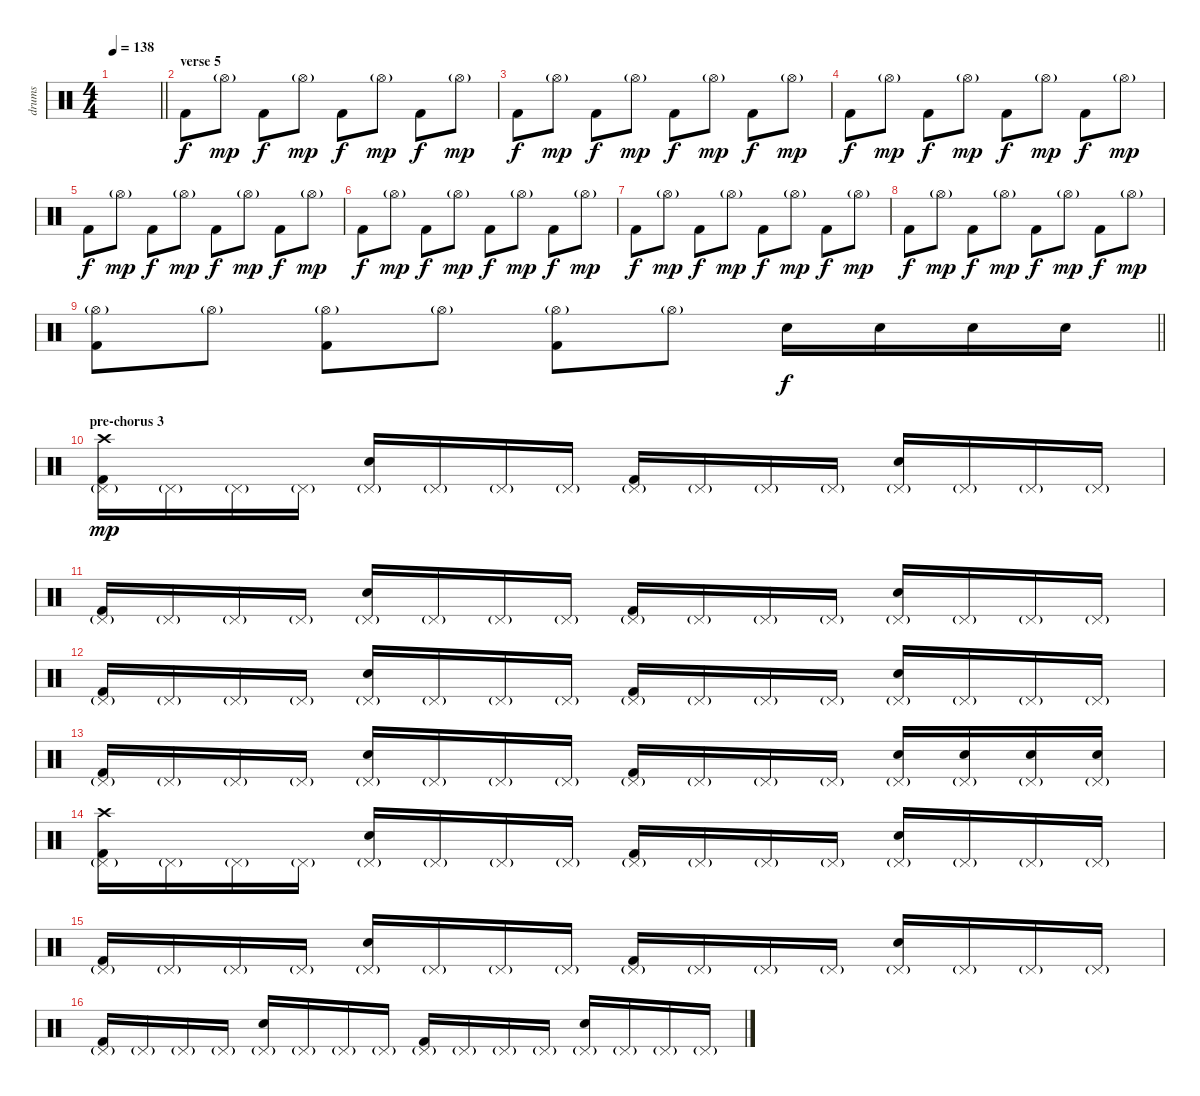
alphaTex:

\track ("drums" "drums") {instrument percussion}
\staff {score}
\articulation defaults
\ts (4 4)
\tempo 138
\clef neutral
\barLineRight lightlight
\ks c
|
\section ("" "verse 5")
"Kick (hit) 2".8{dy f} "Hi-Hat (open)"{g}.8{dy mp} "Kick (hit) 2".8{dy f} "Hi-Hat (open)"{g}.8{dy mp} "Kick (hit) 2".8{dy f} "Hi-Hat (open)"{g}.8{dy mp} "Kick (hit) 2".8{dy f} "Hi-Hat (open)"{g}.8{dy mp} |
"Kick (hit) 2".8{dy f} "Hi-Hat (open)"{g}.8{dy mp} "Kick (hit) 2".8{dy f} "Hi-Hat (open)"{g}.8{dy mp} "Kick (hit) 2".8{dy f} "Hi-Hat (open)"{g}.8{dy mp} "Kick (hit) 2".8{dy f} "Hi-Hat (open)"{g}.8{dy mp} |
"Kick (hit) 2".8{dy f} "Hi-Hat (open)"{g}.8{dy mp} "Kick (hit) 2".8{dy f} "Hi-Hat (open)"{g}.8{dy mp} "Kick (hit) 2".8{dy f} "Hi-Hat (open)"{g}.8{dy mp} "Kick (hit) 2".8{dy f} "Hi-Hat (open)"{g}.8{dy mp} |
"Kick (hit) 2".8{dy f} "Hi-Hat (open)"{g}.8{dy mp} "Kick (hit) 2".8{dy f} "Hi-Hat (open)"{g}.8{dy mp} "Kick (hit) 2".8{dy f} "Hi-Hat (open)"{g}.8{dy mp} "Kick (hit) 2".8{dy f} "Hi-Hat (open)"{g}.8{dy mp} |
"Kick (hit) 2".8{dy f} "Hi-Hat (open)"{g}.8{dy mp} "Kick (hit) 2".8{dy f} "Hi-Hat (open)"{g}.8{dy mp} "Kick (hit) 2".8{dy f} "Hi-Hat (open)"{g}.8{dy mp} "Kick (hit) 2".8{dy f} "Hi-Hat (open)"{g}.8{dy mp} |
"Kick (hit) 2".8{dy f} "Hi-Hat (open)"{g}.8{dy mp} "Kick (hit) 2".8{dy f} "Hi-Hat (open)"{g}.8{dy mp} "Kick (hit) 2".8{dy f} "Hi-Hat (open)"{g}.8{dy mp} "Kick (hit) 2".8{dy f} "Hi-Hat (open)"{g}.8{dy mp} |
"Kick (hit) 2".8{dy f} "Hi-Hat (open)"{g}.8{dy mp} "Kick (hit) 2".8{dy f} "Hi-Hat (open)"{g}.8{dy mp} "Kick (hit) 2".8{dy f} "Hi-Hat (open)"{g}.8{dy mp} "Kick (hit) 2".8{dy f} "Hi-Hat (open)"{g}.8{dy mp} |
\barLineRight lightlight
("Kick (hit) 2" "Hi-Hat (open)"{g}).8 "Hi-Hat (open)"{g}.8 ("Kick (hit) 2" "Hi-Hat (open)"{g}).8 "Hi-Hat (open)"{g}.8 ("Kick (hit) 2" "Hi-Hat (open)"{g}).8 "Hi-Hat (open)"{g}.8 "Electric Snare (hit)".16{dy f} "Electric Snare (hit)".16 "Electric Snare (hit)".16 "Electric Snare (hit)".16 |
\section ("" "pre-chorus 3")
("Kick (hit) 2" "Pedal Hi-Hat (hit)"{g} "Crash high (hit)").16{dy mp} "Pedal Hi-Hat (hit)"{g}.16 "Pedal Hi-Hat (hit)"{g}.16 "Pedal Hi-Hat (hit)"{g}.16 ("Electric Snare (hit)" "Pedal Hi-Hat (hit)"{g}).16 "Pedal Hi-Hat (hit)"{g}.16 "Pedal Hi-Hat (hit)"{g}.16 "Pedal Hi-Hat (hit)"{g}.16 ("Kick (hit) 2" "Pedal Hi-Hat (hit)"{g}).16 "Pedal Hi-Hat (hit)"{g}.16 "Pedal Hi-Hat (hit)"{g}.16 "Pedal Hi-Hat (hit)"{g}.16 ("Electric Snare (hit)" "Pedal Hi-Hat (hit)"{g}).16 "Pedal Hi-Hat (hit)"{g}.16 "Pedal Hi-Hat (hit)"{g}.16 "Pedal Hi-Hat (hit)"{g}.16 |
("Kick (hit) 2" "Pedal Hi-Hat (hit)"{g}).16 "Pedal Hi-Hat (hit)"{g}.16 "Pedal Hi-Hat (hit)"{g}.16 "Pedal Hi-Hat (hit)"{g}.16 ("Electric Snare (hit)" "Pedal Hi-Hat (hit)"{g}).16 "Pedal Hi-Hat (hit)"{g}.16 "Pedal Hi-Hat (hit)"{g}.16 "Pedal Hi-Hat (hit)"{g}.16 ("Kick (hit) 2" "Pedal Hi-Hat (hit)"{g}).16 "Pedal Hi-Hat (hit)"{g}.16 "Pedal Hi-Hat (hit)"{g}.16 "Pedal Hi-Hat (hit)"{g}.16 ("Electric Snare (hit)" "Pedal Hi-Hat (hit)"{g}).16 "Pedal Hi-Hat (hit)"{g}.16 "Pedal Hi-Hat (hit)"{g}.16 "Pedal Hi-Hat (hit)"{g}.16 |
("Kick (hit) 2" "Pedal Hi-Hat (hit)"{g}).16 "Pedal Hi-Hat (hit)"{g}.16 "Pedal Hi-Hat (hit)"{g}.16 "Pedal Hi-Hat (hit)"{g}.16 ("Electric Snare (hit)" "Pedal Hi-Hat (hit)"{g}).16 "Pedal Hi-Hat (hit)"{g}.16 "Pedal Hi-Hat (hit)"{g}.16 "Pedal Hi-Hat (hit)"{g}.16 ("Kick (hit) 2" "Pedal Hi-Hat (hit)"{g}).16 "Pedal Hi-Hat (hit)"{g}.16 "Pedal Hi-Hat (hit)"{g}.16 "Pedal Hi-Hat (hit)"{g}.16 ("Electric Snare (hit)" "Pedal Hi-Hat (hit)"{g}).16 "Pedal Hi-Hat (hit)"{g}.16 "Pedal Hi-Hat (hit)"{g}.16 "Pedal Hi-Hat (hit)"{g}.16 |
("Kick (hit) 2" "Pedal Hi-Hat (hit)"{g}).16 "Pedal Hi-Hat (hit)"{g}.16 "Pedal Hi-Hat (hit)"{g}.16 "Pedal Hi-Hat (hit)"{g}.16 ("Electric Snare (hit)" "Pedal Hi-Hat (hit)"{g}).16 "Pedal Hi-Hat (hit)"{g}.16 "Pedal Hi-Hat (hit)"{g}.16 "Pedal Hi-Hat (hit)"{g}.16 ("Kick (hit) 2" "Pedal Hi-Hat (hit)"{g}).16 "Pedal Hi-Hat (hit)"{g}.16 "Pedal Hi-Hat (hit)"{g}.16 "Pedal Hi-Hat (hit)"{g}.16 ("Electric Snare (hit)" "Pedal Hi-Hat (hit)"{g}).16 ("Electric Snare (hit)" "Pedal Hi-Hat (hit)"{g}).16 ("Electric Snare (hit)" "Pedal Hi-Hat (hit)"{g}).16 ("Electric Snare (hit)" "Pedal Hi-Hat (hit)"{g}).16 |
("Kick (hit) 2" "Pedal Hi-Hat (hit)"{g} "Crash high (hit)").16 "Pedal Hi-Hat (hit)"{g}.16 "Pedal Hi-Hat (hit)"{g}.16 "Pedal Hi-Hat (hit)"{g}.16 ("Electric Snare (hit)" "Pedal Hi-Hat (hit)"{g}).16 "Pedal Hi-Hat (hit)"{g}.16 "Pedal Hi-Hat (hit)"{g}.16 "Pedal Hi-Hat (hit)"{g}.16 ("Kick (hit) 2" "Pedal Hi-Hat (hit)"{g}).16 "Pedal Hi-Hat (hit)"{g}.16 "Pedal Hi-Hat (hit)"{g}.16 "Pedal Hi-Hat (hit)"{g}.16 ("Electric Snare (hit)" "Pedal Hi-Hat (hit)"{g}).16 "Pedal Hi-Hat (hit)"{g}.16 "Pedal Hi-Hat (hit)"{g}.16 "Pedal Hi-Hat (hit)"{g}.16 |
("Kick (hit) 2" "Pedal Hi-Hat (hit)"{g}).16 "Pedal Hi-Hat (hit)"{g}.16 "Pedal Hi-Hat (hit)"{g}.16 "Pedal Hi-Hat (hit)"{g}.16 ("Electric Snare (hit)" "Pedal Hi-Hat (hit)"{g}).16 "Pedal Hi-Hat (hit)"{g}.16 "Pedal Hi-Hat (hit)"{g}.16 "Pedal Hi-Hat (hit)"{g}.16 ("Kick (hit) 2" "Pedal Hi-Hat (hit)"{g}).16 "Pedal Hi-Hat (hit)"{g}.16 "Pedal Hi-Hat (hit)"{g}.16 "Pedal Hi-Hat (hit)"{g}.16 ("Electric Snare (hit)" "Pedal Hi-Hat (hit)"{g}).16 "Pedal Hi-Hat (hit)"{g}.16 "Pedal Hi-Hat (hit)"{g}.16 "Pedal Hi-Hat (hit)"{g}.16 |
("Kick (hit) 2" "Pedal Hi-Hat (hit)"{g}).16 "Pedal Hi-Hat (hit)"{g}.16 "Pedal Hi-Hat (hit)"{g}.16 "Pedal Hi-Hat (hit)"{g}.16 ("Electric Snare (hit)" "Pedal Hi-Hat (hit)"{g}).16 "Pedal Hi-Hat (hit)"{g}.16 "Pedal Hi-Hat (hit)"{g}.16 "Pedal Hi-Hat (hit)"{g}.16 ("Kick (hit) 2" "Pedal Hi-Hat (hit)"{g}).16 "Pedal Hi-Hat (hit)"{g}.16 "Pedal Hi-Hat (hit)"{g}.16 "Pedal Hi-Hat (hit)"{g}.16 ("Electric Snare (hit)" "Pedal Hi-Hat (hit)"{g}).16 "Pedal Hi-Hat (hit)"{g}.16 "Pedal Hi-Hat (hit)"{g}.16 "Pedal Hi-Hat (hit)"{g}.16
